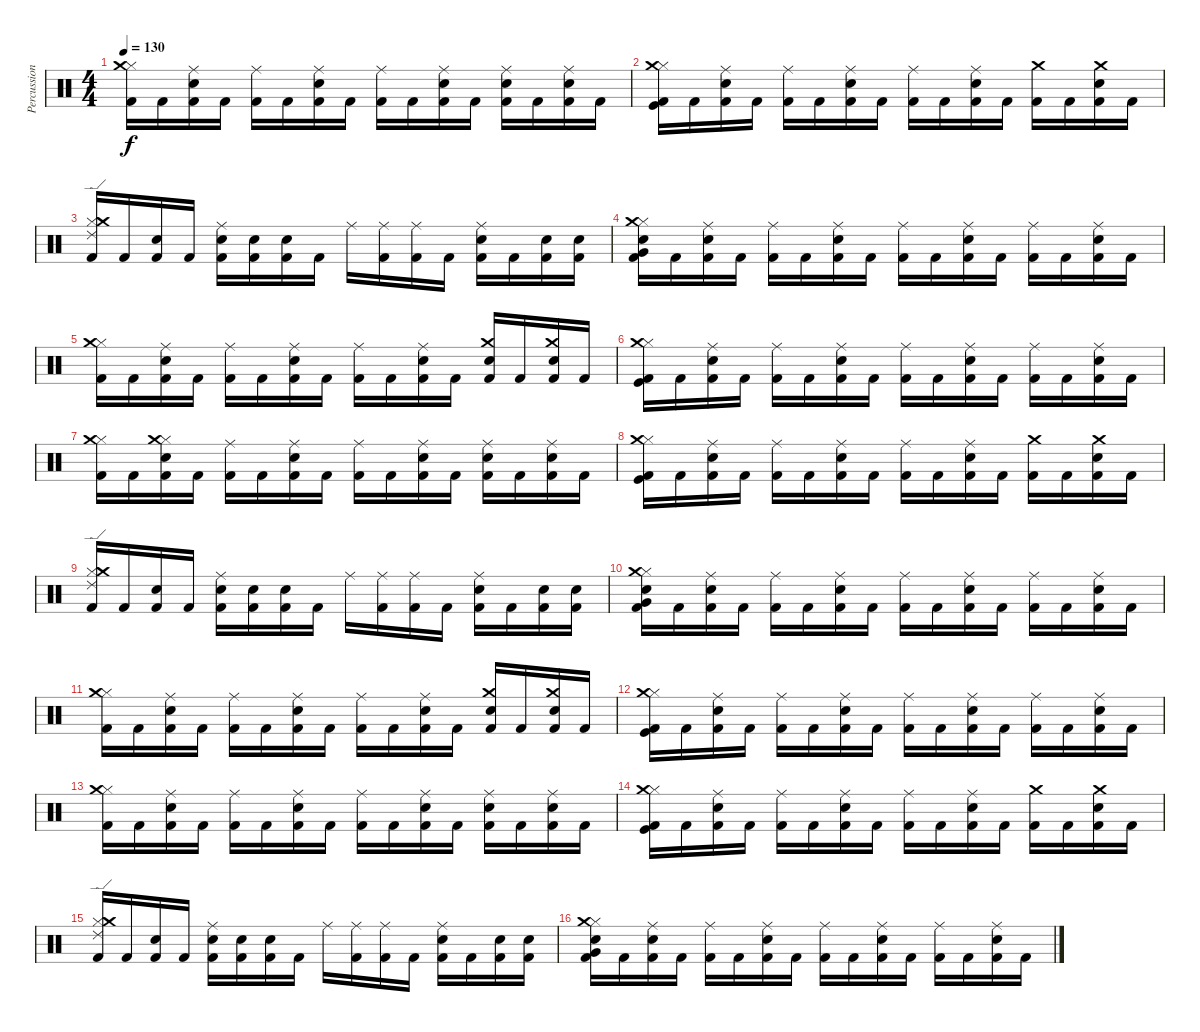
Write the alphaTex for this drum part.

\track ("Percussion" "Percussion") {instrument percussion}
\staff {score}
\articulation defaults
\ts (4 4)
\tempo 130
\clef neutral
\ks c
("Kick (hit) 2" "Hi-Hat (closed)" "Crash medium (hit)").16{dy f} "Kick (hit) 2".16 ("Kick (hit) 2" "Snare (hit) 2" "Ride (middle)").16 "Kick (hit) 2".16 ("Kick (hit) 2" "Ride (middle)").16 "Kick (hit) 2".16 ("Kick (hit) 2" "Snare (hit) 2" "Ride (middle)").16 "Kick (hit) 2".16 ("Kick (hit) 2" "Ride (middle)").16 "Kick (hit) 2".16 ("Kick (hit) 2" "Snare (hit) 2" "Ride (middle)").16 "Kick (hit) 2".16 ("Kick (hit) 2" "Snare (hit) 2" "Ride (middle)").16 "Kick (hit) 2".16 ("Kick (hit) 2" "Snare (hit) 2" "Ride (middle)").16 "Kick (hit) 2".16 |
("Kick (hit) 2" "Hi-Hat (closed)" "Kick (hit)" "Crash medium (hit)").16 "Kick (hit) 2".16 ("Kick (hit) 2" "Snare (hit) 2" "Ride (middle)").16 "Kick (hit) 2".16 ("Kick (hit) 2" "Ride (middle)").16 "Kick (hit) 2".16 ("Kick (hit) 2" "Snare (hit) 2" "Ride (middle)").16 "Kick (hit) 2".16 ("Kick (hit) 2" "Ride (middle)").16 "Kick (hit) 2".16 ("Kick (hit) 2" "Snare (hit) 2" "Ride (middle)").16 "Kick (hit) 2".16 ("Kick (hit) 2" "Crash medium (hit)").16 "Kick (hit) 2".16 ("Kick (hit) 2" "Snare (hit) 2" "Crash medium (hit)").16 "Kick (hit) 2".16 |
("Kick (hit) 2" "Hi-Hat (closed)" "Ride (edge) 2" "Crash medium (hit)").16 "Kick (hit) 2".16 ("Kick (hit) 2" "Snare (hit) 2").16 "Kick (hit) 2".16 ("Kick (hit) 2" "Snare (hit) 2" "Ride (middle)").16 ("Kick (hit) 2" "Snare (hit) 2").16 ("Kick (hit) 2" "Snare (hit) 2").16 "Kick (hit) 2".16 "Ride (middle)".16 ("Kick (hit) 2" "Ride (middle)").16 ("Kick (hit) 2" "Ride (middle)").16 "Kick (hit) 2".16 ("Kick (hit) 2" "Snare (hit) 2" "Ride (middle)").16 "Kick (hit) 2".16 ("Kick (hit) 2" "Snare (hit) 2").16 ("Kick (hit) 2" "Snare (hit) 2").16 |
("Kick (hit) 2" "Snare (hit) 2" "Hi-Hat (closed)" "Crash medium (hit)" "Very Low Tom (hit)").16 "Kick (hit) 2".16 ("Kick (hit) 2" "Snare (hit) 2" "Ride (middle)").16 "Kick (hit) 2".16 ("Kick (hit) 2" "Ride (middle)").16 "Kick (hit) 2".16 ("Kick (hit) 2" "Snare (hit) 2" "Ride (middle)").16 "Kick (hit) 2".16 ("Kick (hit) 2" "Ride (middle)").16 "Kick (hit) 2".16 ("Kick (hit) 2" "Snare (hit) 2" "Ride (middle)").16 "Kick (hit) 2".16 ("Kick (hit) 2" "Ride (middle)").16 "Kick (hit) 2".16 ("Kick (hit) 2" "Snare (hit) 2" "Ride (middle)").16 "Kick (hit) 2".16 |
("Kick (hit) 2" "Hi-Hat (closed)" "Crash medium (hit)").16 "Kick (hit) 2".16 ("Kick (hit) 2" "Snare (hit) 2" "Ride (middle)").16 "Kick (hit) 2".16 ("Kick (hit) 2" "Ride (middle)").16 "Kick (hit) 2".16 ("Kick (hit) 2" "Snare (hit) 2" "Ride (middle)").16 "Kick (hit) 2".16 ("Kick (hit) 2" "Ride (middle)").16 "Kick (hit) 2".16 ("Kick (hit) 2" "Snare (hit) 2" "Ride (middle)").16 "Kick (hit) 2".16 ("Kick (hit) 2" "Snare (hit) 2" "Crash medium (hit)").16 "Kick (hit) 2".16 ("Kick (hit) 2" "Snare (hit) 2" "Crash medium (hit)").16 "Kick (hit) 2".16 |
("Kick (hit) 2" "Hi-Hat (closed)" "Kick (hit)" "Crash medium (hit)").16 "Kick (hit) 2".16 ("Kick (hit) 2" "Snare (hit) 2" "Ride (middle)").16 "Kick (hit) 2".16 ("Kick (hit) 2" "Ride (middle)").16 "Kick (hit) 2".16 ("Kick (hit) 2" "Snare (hit) 2" "Ride (middle)").16 "Kick (hit) 2".16 ("Kick (hit) 2" "Ride (middle)").16 "Kick (hit) 2".16 ("Kick (hit) 2" "Snare (hit) 2" "Ride (middle)").16 "Kick (hit) 2".16 ("Kick (hit) 2" "Ride (middle)").16 "Kick (hit) 2".16 ("Kick (hit) 2" "Snare (hit) 2" "Ride (middle)").16 "Kick (hit) 2".16 |
("Kick (hit) 2" "Hi-Hat (closed)" "Crash medium (hit)").16 "Kick (hit) 2".16 ("Kick (hit) 2" "Hi-Hat (closed)" "Snare (hit) 2" "Crash medium (hit)").16 "Kick (hit) 2".16 ("Kick (hit) 2" "Ride (middle)").16 "Kick (hit) 2".16 ("Kick (hit) 2" "Snare (hit) 2" "Ride (middle)").16 "Kick (hit) 2".16 ("Kick (hit) 2" "Ride (middle)").16 "Kick (hit) 2".16 ("Kick (hit) 2" "Snare (hit) 2" "Ride (middle)").16 "Kick (hit) 2".16 ("Kick (hit) 2" "Snare (hit) 2" "Ride (middle)").16 "Kick (hit) 2".16 ("Kick (hit) 2" "Snare (hit) 2" "Ride (middle)").16 "Kick (hit) 2".16 |
("Kick (hit) 2" "Hi-Hat (closed)" "Kick (hit)" "Crash medium (hit)").16 "Kick (hit) 2".16 ("Kick (hit) 2" "Snare (hit) 2" "Ride (middle)").16 "Kick (hit) 2".16 ("Kick (hit) 2" "Ride (middle)").16 "Kick (hit) 2".16 ("Kick (hit) 2" "Snare (hit) 2" "Ride (middle)").16 "Kick (hit) 2".16 ("Kick (hit) 2" "Ride (middle)").16 "Kick (hit) 2".16 ("Kick (hit) 2" "Snare (hit) 2" "Ride (middle)").16 "Kick (hit) 2".16 ("Kick (hit) 2" "Crash medium (hit)").16 "Kick (hit) 2".16 ("Kick (hit) 2" "Snare (hit) 2" "Crash medium (hit)").16 "Kick (hit) 2".16 |
("Kick (hit) 2" "Hi-Hat (closed)" "Ride (edge) 2" "Crash medium (hit)").16 "Kick (hit) 2".16 ("Kick (hit) 2" "Snare (hit) 2").16 "Kick (hit) 2".16 ("Kick (hit) 2" "Snare (hit) 2" "Ride (middle)").16 ("Kick (hit) 2" "Snare (hit) 2").16 ("Kick (hit) 2" "Snare (hit) 2").16 "Kick (hit) 2".16 "Ride (middle)".16 ("Kick (hit) 2" "Ride (middle)").16 ("Kick (hit) 2" "Ride (middle)").16 "Kick (hit) 2".16 ("Kick (hit) 2" "Snare (hit) 2" "Ride (middle)").16 "Kick (hit) 2".16 ("Kick (hit) 2" "Snare (hit) 2").16 ("Kick (hit) 2" "Snare (hit) 2").16 |
("Kick (hit) 2" "Snare (hit) 2" "Hi-Hat (closed)" "Crash medium (hit)" "Very Low Tom (hit)").16 "Kick (hit) 2".16 ("Kick (hit) 2" "Snare (hit) 2" "Ride (middle)").16 "Kick (hit) 2".16 ("Kick (hit) 2" "Ride (middle)").16 "Kick (hit) 2".16 ("Kick (hit) 2" "Snare (hit) 2" "Ride (middle)").16 "Kick (hit) 2".16 ("Kick (hit) 2" "Ride (middle)").16 "Kick (hit) 2".16 ("Kick (hit) 2" "Snare (hit) 2" "Ride (middle)").16 "Kick (hit) 2".16 ("Kick (hit) 2" "Ride (middle)").16 "Kick (hit) 2".16 ("Kick (hit) 2" "Snare (hit) 2" "Ride (middle)").16 "Kick (hit) 2".16 |
("Kick (hit) 2" "Hi-Hat (closed)" "Crash medium (hit)").16 "Kick (hit) 2".16 ("Kick (hit) 2" "Snare (hit) 2" "Ride (middle)").16 "Kick (hit) 2".16 ("Kick (hit) 2" "Ride (middle)").16 "Kick (hit) 2".16 ("Kick (hit) 2" "Snare (hit) 2" "Ride (middle)").16 "Kick (hit) 2".16 ("Kick (hit) 2" "Ride (middle)").16 "Kick (hit) 2".16 ("Kick (hit) 2" "Snare (hit) 2" "Ride (middle)").16 "Kick (hit) 2".16 ("Kick (hit) 2" "Snare (hit) 2" "Crash medium (hit)").16 "Kick (hit) 2".16 ("Kick (hit) 2" "Snare (hit) 2" "Crash medium (hit)").16 "Kick (hit) 2".16 |
("Kick (hit) 2" "Hi-Hat (closed)" "Kick (hit)" "Crash medium (hit)").16 "Kick (hit) 2".16 ("Kick (hit) 2" "Snare (hit) 2" "Ride (middle)").16 "Kick (hit) 2".16 ("Kick (hit) 2" "Ride (middle)").16 "Kick (hit) 2".16 ("Kick (hit) 2" "Snare (hit) 2" "Ride (middle)").16 "Kick (hit) 2".16 ("Kick (hit) 2" "Ride (middle)").16 "Kick (hit) 2".16 ("Kick (hit) 2" "Snare (hit) 2" "Ride (middle)").16 "Kick (hit) 2".16 ("Kick (hit) 2" "Ride (middle)").16 "Kick (hit) 2".16 ("Kick (hit) 2" "Snare (hit) 2" "Ride (middle)").16 "Kick (hit) 2".16 |
("Kick (hit) 2" "Hi-Hat (closed)" "Crash medium (hit)").16 "Kick (hit) 2".16 ("Kick (hit) 2" "Snare (hit) 2" "Ride (middle)").16 "Kick (hit) 2".16 ("Kick (hit) 2" "Ride (middle)").16 "Kick (hit) 2".16 ("Kick (hit) 2" "Snare (hit) 2" "Ride (middle)").16 "Kick (hit) 2".16 ("Kick (hit) 2" "Ride (middle)").16 "Kick (hit) 2".16 ("Kick (hit) 2" "Snare (hit) 2" "Ride (middle)").16 "Kick (hit) 2".16 ("Kick (hit) 2" "Snare (hit) 2" "Ride (middle)").16 "Kick (hit) 2".16 ("Kick (hit) 2" "Snare (hit) 2" "Ride (middle)").16 "Kick (hit) 2".16 |
("Kick (hit) 2" "Hi-Hat (closed)" "Kick (hit)" "Crash medium (hit)").16 "Kick (hit) 2".16 ("Kick (hit) 2" "Snare (hit) 2" "Ride (middle)").16 "Kick (hit) 2".16 ("Kick (hit) 2" "Ride (middle)").16 "Kick (hit) 2".16 ("Kick (hit) 2" "Snare (hit) 2" "Ride (middle)").16 "Kick (hit) 2".16 ("Kick (hit) 2" "Ride (middle)").16 "Kick (hit) 2".16 ("Kick (hit) 2" "Snare (hit) 2" "Ride (middle)").16 "Kick (hit) 2".16 ("Kick (hit) 2" "Crash medium (hit)").16 "Kick (hit) 2".16 ("Kick (hit) 2" "Snare (hit) 2" "Crash medium (hit)").16 "Kick (hit) 2".16 |
("Kick (hit) 2" "Hi-Hat (closed)" "Ride (edge) 2" "Crash medium (hit)").16 "Kick (hit) 2".16 ("Kick (hit) 2" "Snare (hit) 2").16 "Kick (hit) 2".16 ("Kick (hit) 2" "Snare (hit) 2" "Ride (middle)").16 ("Kick (hit) 2" "Snare (hit) 2").16 ("Kick (hit) 2" "Snare (hit) 2").16 "Kick (hit) 2".16 "Ride (middle)".16 ("Kick (hit) 2" "Ride (middle)").16 ("Kick (hit) 2" "Ride (middle)").16 "Kick (hit) 2".16 ("Kick (hit) 2" "Snare (hit) 2" "Ride (middle)").16 "Kick (hit) 2".16 ("Kick (hit) 2" "Snare (hit) 2").16 ("Kick (hit) 2" "Snare (hit) 2").16 |
("Kick (hit) 2" "Snare (hit) 2" "Hi-Hat (closed)" "Crash medium (hit)" "Very Low Tom (hit)").16 "Kick (hit) 2".16 ("Kick (hit) 2" "Snare (hit) 2" "Ride (middle)").16 "Kick (hit) 2".16 ("Kick (hit) 2" "Ride (middle)").16 "Kick (hit) 2".16 ("Kick (hit) 2" "Snare (hit) 2" "Ride (middle)").16 "Kick (hit) 2".16 ("Kick (hit) 2" "Ride (middle)").16 "Kick (hit) 2".16 ("Kick (hit) 2" "Snare (hit) 2" "Ride (middle)").16 "Kick (hit) 2".16 ("Kick (hit) 2" "Ride (middle)").16 "Kick (hit) 2".16 ("Kick (hit) 2" "Snare (hit) 2" "Ride (middle)").16 "Kick (hit) 2".16
